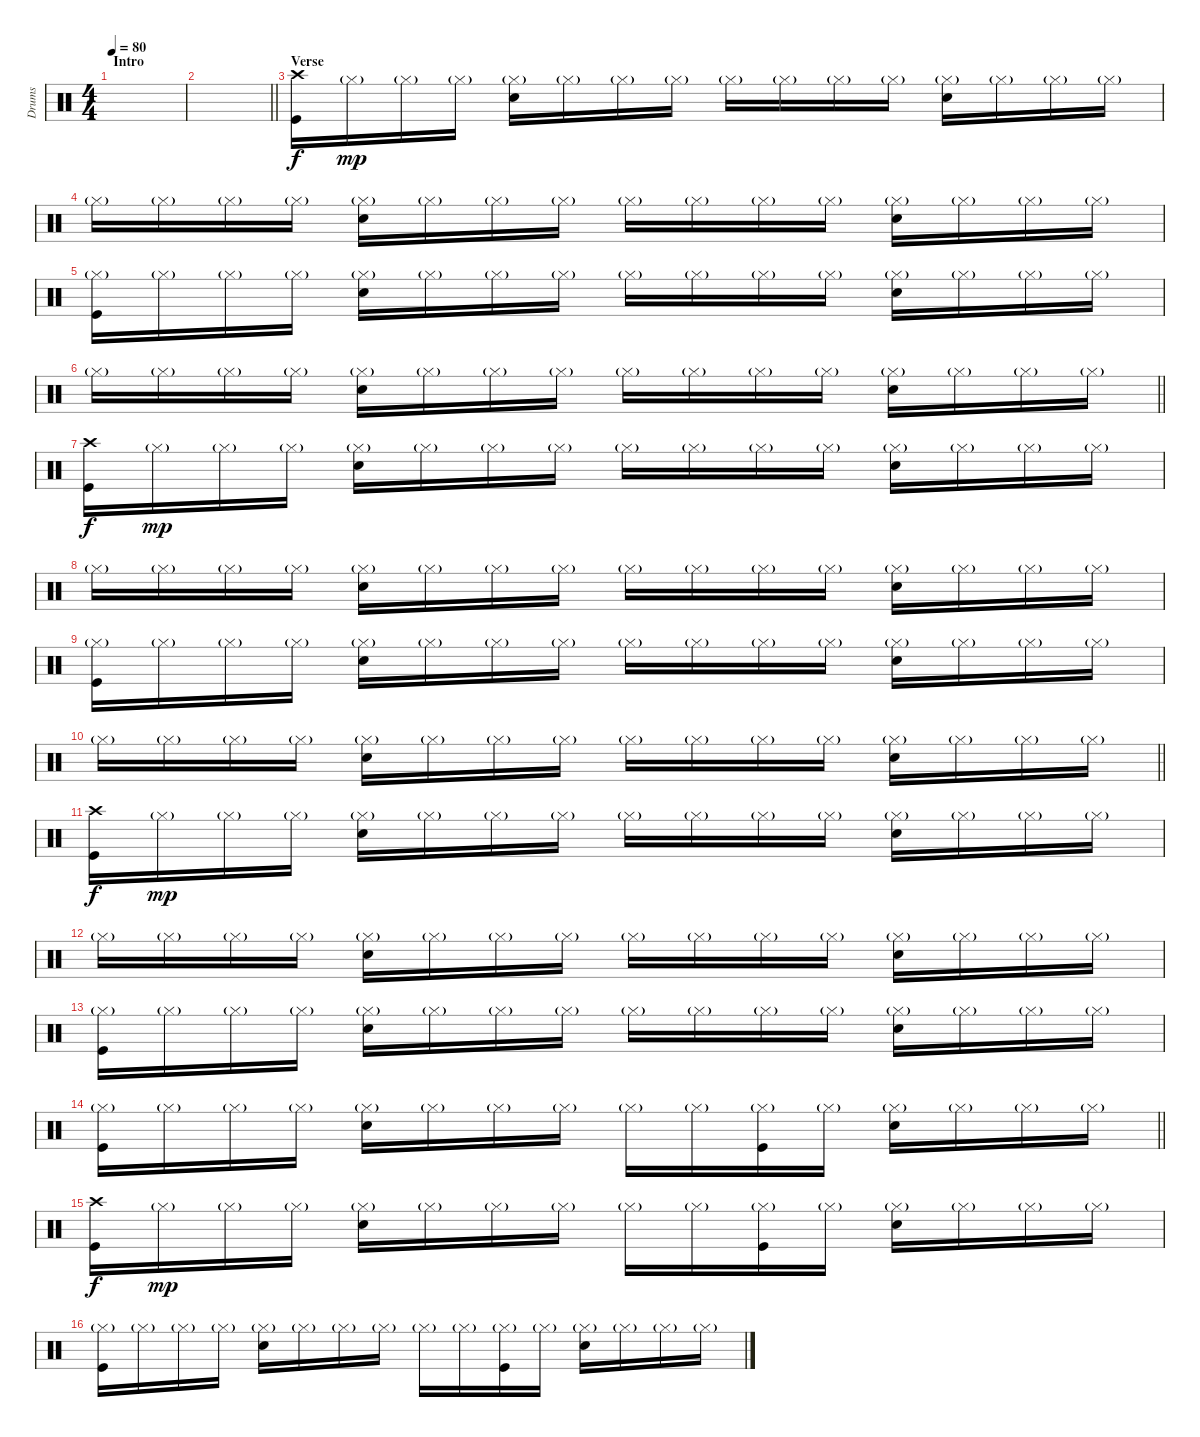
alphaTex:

\track ("Drums" "Drums") {instrument percussion}
\staff {score}
\articulation defaults
\ts (4 4)
\section ("" "Intro")
\tempo 80
\clef neutral
\ks c
|
\barLineRight lightlight
|
\section ("" "Verse")
("Crash high (hit)" "Kick (hit)").16 "Hi-Hat (closed)"{g}.16{dy mp} "Hi-Hat (closed)"{g}.16 "Hi-Hat (closed)"{g}.16 ("Hi-Hat (closed)"{g} "Snare (hit) 2").16 "Hi-Hat (closed)"{g}.16 "Hi-Hat (closed)"{g}.16 "Hi-Hat (closed)"{g}.16 "Hi-Hat (closed)"{g}.16 "Hi-Hat (closed)"{g}.16 "Hi-Hat (closed)"{g}.16 "Hi-Hat (closed)"{g}.16 ("Hi-Hat (closed)"{g} "Snare (hit) 2").16 "Hi-Hat (closed)"{g}.16 "Hi-Hat (closed)"{g}.16 "Hi-Hat (closed)"{g}.16 |
"Hi-Hat (closed)"{g}.16 "Hi-Hat (closed)"{g}.16 "Hi-Hat (closed)"{g}.16 "Hi-Hat (closed)"{g}.16 ("Hi-Hat (closed)"{g} "Snare (hit) 2").16 "Hi-Hat (closed)"{g}.16 "Hi-Hat (closed)"{g}.16 "Hi-Hat (closed)"{g}.16 "Hi-Hat (closed)"{g}.16 "Hi-Hat (closed)"{g}.16 "Hi-Hat (closed)"{g}.16 "Hi-Hat (closed)"{g}.16 ("Hi-Hat (closed)"{g} "Snare (hit) 2").16 "Hi-Hat (closed)"{g}.16 "Hi-Hat (closed)"{g}.16 "Hi-Hat (closed)"{g}.16 |
("Hi-Hat (closed)"{g} "Kick (hit)").16 "Hi-Hat (closed)"{g}.16 "Hi-Hat (closed)"{g}.16 "Hi-Hat (closed)"{g}.16 ("Hi-Hat (closed)"{g} "Snare (hit) 2").16 "Hi-Hat (closed)"{g}.16 "Hi-Hat (closed)"{g}.16 "Hi-Hat (closed)"{g}.16 "Hi-Hat (closed)"{g}.16 "Hi-Hat (closed)"{g}.16 "Hi-Hat (closed)"{g}.16 "Hi-Hat (closed)"{g}.16 ("Hi-Hat (closed)"{g} "Snare (hit) 2").16 "Hi-Hat (closed)"{g}.16 "Hi-Hat (closed)"{g}.16 "Hi-Hat (closed)"{g}.16 |
\barLineRight lightlight "Hi-Hat (closed)"{g}.16 "Hi-Hat (closed)"{g}.16 "Hi-Hat (closed)"{g}.16 "Hi-Hat (closed)"{g}.16
("Hi-Hat (closed)"{g} "Snare (hit) 2").16 "Hi-Hat (closed)"{g}.16 "Hi-Hat (closed)"{g}.16 "Hi-Hat (closed)"{g}.16 "Hi-Hat (closed)"{g}.16 "Hi-Hat (closed)"{g}.16 "Hi-Hat (closed)"{g}.16 "Hi-Hat (closed)"{g}.16 ("Hi-Hat (closed)"{g} "Snare (hit) 2").16 "Hi-Hat (closed)"{g}.16 "Hi-Hat (closed)"{g}.16 "Hi-Hat (closed)"{g}.16 |
("Crash high (hit)" "Kick (hit)").16{dy f} "Hi-Hat (closed)"{g}.16{dy mp} "Hi-Hat (closed)"{g}.16 "Hi-Hat (closed)"{g}.16 ("Hi-Hat (closed)"{g} "Snare (hit) 2").16 "Hi-Hat (closed)"{g}.16 "Hi-Hat (closed)"{g}.16 "Hi-Hat (closed)"{g}.16 "Hi-Hat (closed)"{g}.16 "Hi-Hat (closed)"{g}.16 "Hi-Hat (closed)"{g}.16 "Hi-Hat (closed)"{g}.16 ("Hi-Hat (closed)"{g} "Snare (hit) 2").16 "Hi-Hat (closed)"{g}.16 "Hi-Hat (closed)"{g}.16 "Hi-Hat (closed)"{g}.16 |
"Hi-Hat (closed)"{g}.16 "Hi-Hat (closed)"{g}.16 "Hi-Hat (closed)"{g}.16 "Hi-Hat (closed)"{g}.16 ("Hi-Hat (closed)"{g} "Snare (hit) 2").16 "Hi-Hat (closed)"{g}.16 "Hi-Hat (closed)"{g}.16 "Hi-Hat (closed)"{g}.16 "Hi-Hat (closed)"{g}.16 "Hi-Hat (closed)"{g}.16 "Hi-Hat (closed)"{g}.16 "Hi-Hat (closed)"{g}.16 ("Hi-Hat (closed)"{g} "Snare (hit) 2").16 "Hi-Hat (closed)"{g}.16 "Hi-Hat (closed)"{g}.16 "Hi-Hat (closed)"{g}.16 |
("Hi-Hat (closed)"{g} "Kick (hit)").16 "Hi-Hat (closed)"{g}.16 "Hi-Hat (closed)"{g}.16 "Hi-Hat (closed)"{g}.16 ("Hi-Hat (closed)"{g} "Snare (hit) 2").16 "Hi-Hat (closed)"{g}.16 "Hi-Hat (closed)"{g}.16 "Hi-Hat (closed)"{g}.16 "Hi-Hat (closed)"{g}.16 "Hi-Hat (closed)"{g}.16 "Hi-Hat (closed)"{g}.16 "Hi-Hat (closed)"{g}.16 ("Hi-Hat (closed)"{g} "Snare (hit) 2").16 "Hi-Hat (closed)"{g}.16 "Hi-Hat (closed)"{g}.16 "Hi-Hat (closed)"{g}.16 |
\barLineRight lightlight "Hi-Hat (closed)"{g}.16 "Hi-Hat (closed)"{g}.16 "Hi-Hat (closed)"{g}.16 "Hi-Hat (closed)"{g}.16
("Hi-Hat (closed)"{g} "Snare (hit) 2").16 "Hi-Hat (closed)"{g}.16 "Hi-Hat (closed)"{g}.16 "Hi-Hat (closed)"{g}.16 "Hi-Hat (closed)"{g}.16 "Hi-Hat (closed)"{g}.16 "Hi-Hat (closed)"{g}.16 "Hi-Hat (closed)"{g}.16 ("Hi-Hat (closed)"{g} "Snare (hit) 2").16 "Hi-Hat (closed)"{g}.16 "Hi-Hat (closed)"{g}.16 "Hi-Hat (closed)"{g}.16 |
("Crash high (hit)" "Kick (hit)").16{dy f} "Hi-Hat (closed)"{g}.16{dy mp} "Hi-Hat (closed)"{g}.16 "Hi-Hat (closed)"{g}.16 ("Hi-Hat (closed)"{g} "Snare (hit) 2").16 "Hi-Hat (closed)"{g}.16 "Hi-Hat (closed)"{g}.16 "Hi-Hat (closed)"{g}.16 "Hi-Hat (closed)"{g}.16 "Hi-Hat (closed)"{g}.16 "Hi-Hat (closed)"{g}.16 "Hi-Hat (closed)"{g}.16 ("Hi-Hat (closed)"{g} "Snare (hit) 2").16 "Hi-Hat (closed)"{g}.16 "Hi-Hat (closed)"{g}.16 "Hi-Hat (closed)"{g}.16 |
"Hi-Hat (closed)"{g}.16 "Hi-Hat (closed)"{g}.16 "Hi-Hat (closed)"{g}.16 "Hi-Hat (closed)"{g}.16 ("Hi-Hat (closed)"{g} "Snare (hit) 2").16 "Hi-Hat (closed)"{g}.16 "Hi-Hat (closed)"{g}.16 "Hi-Hat (closed)"{g}.16 "Hi-Hat (closed)"{g}.16 "Hi-Hat (closed)"{g}.16 "Hi-Hat (closed)"{g}.16 "Hi-Hat (closed)"{g}.16 ("Hi-Hat (closed)"{g} "Snare (hit) 2").16 "Hi-Hat (closed)"{g}.16 "Hi-Hat (closed)"{g}.16 "Hi-Hat (closed)"{g}.16 |
("Hi-Hat (closed)"{g} "Kick (hit)").16 "Hi-Hat (closed)"{g}.16 "Hi-Hat (closed)"{g}.16 "Hi-Hat (closed)"{g}.16 ("Hi-Hat (closed)"{g} "Snare (hit) 2").16 "Hi-Hat (closed)"{g}.16 "Hi-Hat (closed)"{g}.16 "Hi-Hat (closed)"{g}.16 "Hi-Hat (closed)"{g}.16 "Hi-Hat (closed)"{g}.16 "Hi-Hat (closed)"{g}.16 "Hi-Hat (closed)"{g}.16 ("Hi-Hat (closed)"{g} "Snare (hit) 2").16 "Hi-Hat (closed)"{g}.16 "Hi-Hat (closed)"{g}.16 "Hi-Hat (closed)"{g}.16 |
\barLineRight lightlight
("Hi-Hat (closed)"{g} "Kick (hit)").16 "Hi-Hat (closed)"{g}.16 "Hi-Hat (closed)"{g}.16 "Hi-Hat (closed)"{g}.16 ("Hi-Hat (closed)"{g} "Snare (hit) 2").16 "Hi-Hat (closed)"{g}.16 "Hi-Hat (closed)"{g}.16 "Hi-Hat (closed)"{g}.16 "Hi-Hat (closed)"{g}.16 "Hi-Hat (closed)"{g}.16 ("Hi-Hat (closed)"{g} "Kick (hit)").16 "Hi-Hat (closed)"{g}.16 ("Hi-Hat (closed)"{g} "Snare (hit) 2").16 "Hi-Hat (closed)"{g}.16 "Hi-Hat (closed)"{g}.16 "Hi-Hat (closed)"{g}.16 |
("Crash high (hit)" "Kick (hit)").16{dy f} "Hi-Hat (closed)"{g}.16{dy mp} "Hi-Hat (closed)"{g}.16 "Hi-Hat (closed)"{g}.16 ("Hi-Hat (closed)"{g} "Snare (hit) 2").16 "Hi-Hat (closed)"{g}.16 "Hi-Hat (closed)"{g}.16 "Hi-Hat (closed)"{g}.16 "Hi-Hat (closed)"{g}.16 "Hi-Hat (closed)"{g}.16 ("Hi-Hat (closed)"{g} "Kick (hit)").16 "Hi-Hat (closed)"{g}.16 ("Hi-Hat (closed)"{g} "Snare (hit) 2").16 "Hi-Hat (closed)"{g}.16 "Hi-Hat (closed)"{g}.16 "Hi-Hat (closed)"{g}.16 |
("Hi-Hat (closed)"{g} "Kick (hit)").16 "Hi-Hat (closed)"{g}.16 "Hi-Hat (closed)"{g}.16 "Hi-Hat (closed)"{g}.16 ("Hi-Hat (closed)"{g} "Snare (hit) 2").16 "Hi-Hat (closed)"{g}.16 "Hi-Hat (closed)"{g}.16 "Hi-Hat (closed)"{g}.16 "Hi-Hat (closed)"{g}.16 "Hi-Hat (closed)"{g}.16 ("Hi-Hat (closed)"{g} "Kick (hit)").16 "Hi-Hat (closed)"{g}.16 ("Hi-Hat (closed)"{g} "Snare (hit) 2").16 "Hi-Hat (closed)"{g}.16 "Hi-Hat (closed)"{g}.16 "Hi-Hat (closed)"{g}.16
